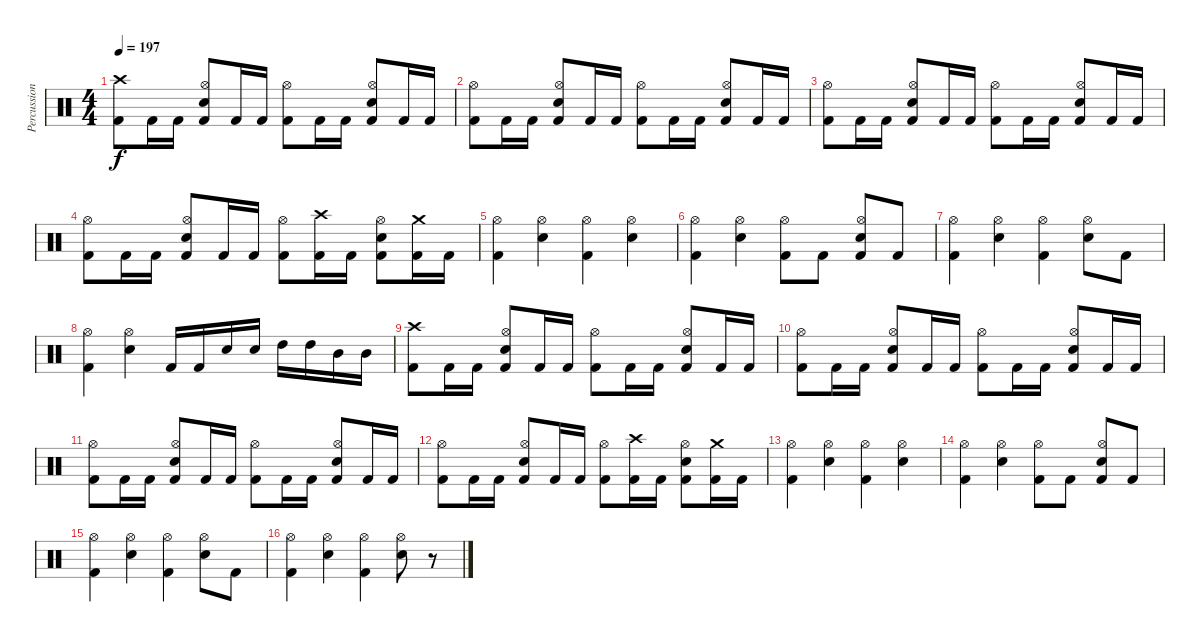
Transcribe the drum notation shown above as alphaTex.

\track ("Percussion" "Percussion") {instrument percussion}
\staff {score}
\articulation defaults
\ts (4 4)
\tempo 197
\clef neutral
\ks c
("Crash high (hit)" "Kick (hit) 2").8{dy f} "Kick (hit) 2".16 "Kick (hit) 2".16 ("Hi-Hat (open)" "Electric Snare (hit)" "Kick (hit) 2").8 "Kick (hit) 2".16 "Kick (hit) 2".16 ("Hi-Hat (open)" "Kick (hit) 2").8 "Kick (hit) 2".16 "Kick (hit) 2".16 ("Hi-Hat (open)" "Electric Snare (hit)" "Kick (hit) 2").8 "Kick (hit) 2".16 "Kick (hit) 2".16 |
("Hi-Hat (open)" "Kick (hit) 2").8 "Kick (hit) 2".16 "Kick (hit) 2".16 ("Hi-Hat (open)" "Electric Snare (hit)" "Kick (hit) 2").8 "Kick (hit) 2".16 "Kick (hit) 2".16 ("Hi-Hat (open)" "Kick (hit) 2").8 "Kick (hit) 2".16 "Kick (hit) 2".16 ("Hi-Hat (open)" "Electric Snare (hit)" "Kick (hit) 2").8 "Kick (hit) 2".16 "Kick (hit) 2".16 |
("Hi-Hat (open)" "Kick (hit) 2").8 "Kick (hit) 2".16 "Kick (hit) 2".16 ("Hi-Hat (open)" "Electric Snare (hit)" "Kick (hit) 2").8 "Kick (hit) 2".16 "Kick (hit) 2".16 ("Hi-Hat (open)" "Kick (hit) 2").8 "Kick (hit) 2".16 "Kick (hit) 2".16 ("Hi-Hat (open)" "Electric Snare (hit)" "Kick (hit) 2").8 "Kick (hit) 2".16 "Kick (hit) 2".16 |
("Hi-Hat (open)" "Kick (hit) 2").8 "Kick (hit) 2".16 "Kick (hit) 2".16 ("Hi-Hat (open)" "Electric Snare (hit)" "Kick (hit) 2").8 "Kick (hit) 2".16 "Kick (hit) 2".16 ("Hi-Hat (open)" "Kick (hit) 2").8 ("Crash high (hit)" "Kick (hit) 2").16 "Kick (hit) 2".16 ("Hi-Hat (open)" "Electric Snare (hit)" "Kick (hit) 2").8 ("Crash medium (hit)" "Kick (hit) 2").16 "Kick (hit) 2".16 |
("Hi-Hat (open)" "Kick (hit) 2").4 ("Hi-Hat (open)" "Electric Snare (hit)").4 ("Hi-Hat (open)" "Kick (hit) 2").4 ("Hi-Hat (open)" "Electric Snare (hit)").4 |
("Hi-Hat (open)" "Kick (hit) 2").4 ("Hi-Hat (open)" "Electric Snare (hit)").4 ("Hi-Hat (open)" "Kick (hit) 2").8 "Kick (hit) 2".8 ("Hi-Hat (open)" "Electric Snare (hit)" "Kick (hit) 2").8 "Kick (hit) 2".8 |
("Hi-Hat (open)" "Kick (hit) 2").4 ("Hi-Hat (open)" "Electric Snare (hit)").4 ("Hi-Hat (open)" "Kick (hit) 2").4 ("Hi-Hat (open)" "Electric Snare (hit)").8 "Kick (hit) 2".8 |
("Hi-Hat (open)" "Kick (hit) 2").4 ("Hi-Hat (open)" "Electric Snare (hit)").4 "Kick (hit) 2".16 "Kick (hit) 2".16 "Electric Snare (hit)".16 "Electric Snare (hit)".16 "High Tom (hit)".16 "High Tom (hit)".16 "Mid Tom (hit)".16 "Mid Tom (hit)".16 |
("Crash high (hit)" "Kick (hit) 2").8 "Kick (hit) 2".16 "Kick (hit) 2".16 ("Hi-Hat (open)" "Electric Snare (hit)" "Kick (hit) 2").8 "Kick (hit) 2".16 "Kick (hit) 2".16 ("Hi-Hat (open)" "Kick (hit) 2").8 "Kick (hit) 2".16 "Kick (hit) 2".16 ("Hi-Hat (open)" "Electric Snare (hit)" "Kick (hit) 2").8 "Kick (hit) 2".16 "Kick (hit) 2".16 |
("Hi-Hat (open)" "Kick (hit) 2").8 "Kick (hit) 2".16 "Kick (hit) 2".16 ("Hi-Hat (open)" "Electric Snare (hit)" "Kick (hit) 2").8 "Kick (hit) 2".16 "Kick (hit) 2".16 ("Hi-Hat (open)" "Kick (hit) 2").8 "Kick (hit) 2".16 "Kick (hit) 2".16 ("Hi-Hat (open)" "Electric Snare (hit)" "Kick (hit) 2").8 "Kick (hit) 2".16 "Kick (hit) 2".16 |
("Hi-Hat (open)" "Kick (hit) 2").8 "Kick (hit) 2".16 "Kick (hit) 2".16 ("Hi-Hat (open)" "Electric Snare (hit)" "Kick (hit) 2").8 "Kick (hit) 2".16 "Kick (hit) 2".16 ("Hi-Hat (open)" "Kick (hit) 2").8 "Kick (hit) 2".16 "Kick (hit) 2".16 ("Hi-Hat (open)" "Electric Snare (hit)" "Kick (hit) 2").8 "Kick (hit) 2".16 "Kick (hit) 2".16 |
("Hi-Hat (open)" "Kick (hit) 2").8 "Kick (hit) 2".16 "Kick (hit) 2".16 ("Hi-Hat (open)" "Electric Snare (hit)" "Kick (hit) 2").8 "Kick (hit) 2".16 "Kick (hit) 2".16 ("Hi-Hat (open)" "Kick (hit) 2").8 ("Crash high (hit)" "Kick (hit) 2").16 "Kick (hit) 2".16 ("Hi-Hat (open)" "Electric Snare (hit)" "Kick (hit) 2").8 ("Crash medium (hit)" "Kick (hit) 2").16 "Kick (hit) 2".16 |
("Hi-Hat (open)" "Kick (hit) 2").4 ("Hi-Hat (open)" "Electric Snare (hit)").4 ("Hi-Hat (open)" "Kick (hit) 2").4 ("Hi-Hat (open)" "Electric Snare (hit)").4 |
("Hi-Hat (open)" "Kick (hit) 2").4 ("Hi-Hat (open)" "Electric Snare (hit)").4 ("Hi-Hat (open)" "Kick (hit) 2").8 "Kick (hit) 2".8 ("Hi-Hat (open)" "Electric Snare (hit)" "Kick (hit) 2").8 "Kick (hit) 2".8 |
("Hi-Hat (open)" "Kick (hit) 2").4 ("Hi-Hat (open)" "Electric Snare (hit)").4 ("Hi-Hat (open)" "Kick (hit) 2").4 ("Hi-Hat (open)" "Electric Snare (hit)").8 "Kick (hit) 2".8 |
("Hi-Hat (open)" "Kick (hit) 2").4 ("Hi-Hat (open)" "Electric Snare (hit)").4 ("Hi-Hat (open)" "Kick (hit) 2").4 ("Hi-Hat (open)" "Electric Snare (hit)").8 r.8
